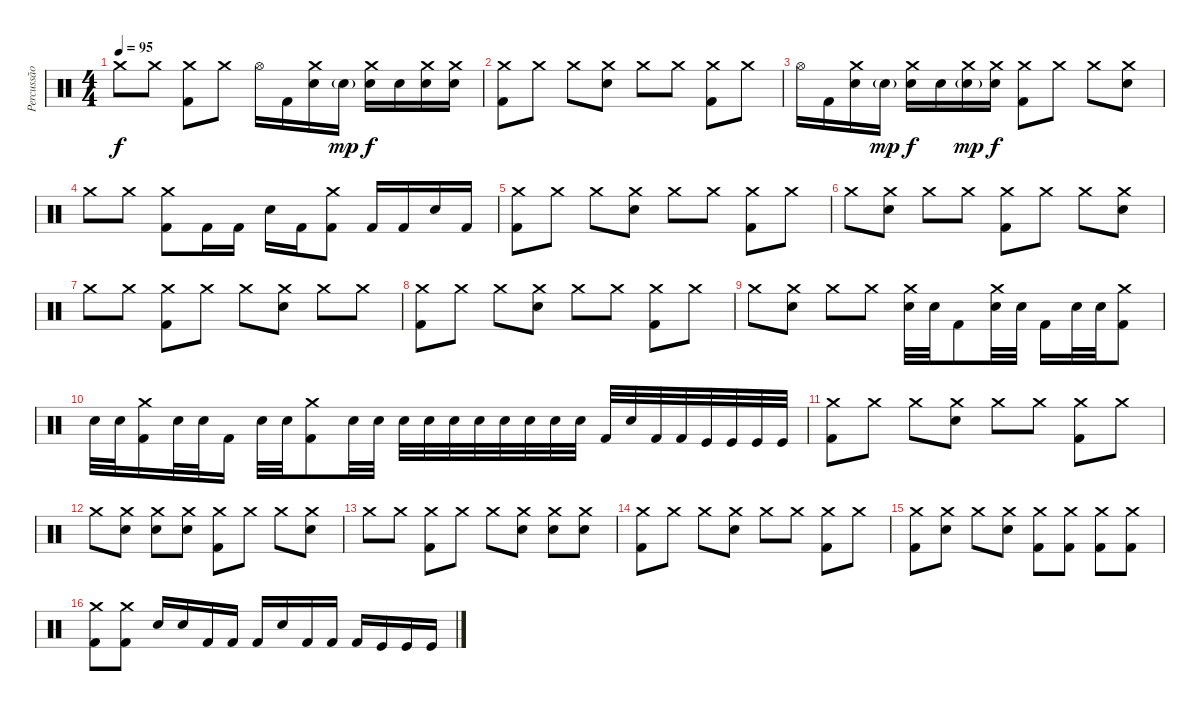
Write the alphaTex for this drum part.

\track ("Percussão" "Percussão") {instrument percussion}
\staff {score}
\articulation defaults
\ts (4 4)
\tempo 95
\clef neutral
\ks c "Crash medium (hit)".8{dy f} "Crash medium (hit)".8
("Kick (hit) 2" "Crash medium (hit)").8 "Crash medium (hit)".8 "Hi-Hat (open)".16 "Kick (hit) 2".16 ("Snare (hit) 2" "Crash medium (hit)").16 "Electric Snare (hit)"{g}.16{dy mp} ("Electric Snare (hit)" "Crash medium (hit)").16{dy f} "Snare (hit) 2".16 ("Electric Snare (hit)" "Crash medium (hit)").16 ("Snare (hit) 2" "Crash medium (hit)").16 |
("Kick (hit) 2" "Crash medium (hit)").8 "Crash medium (hit)".8 "Crash medium (hit)".8 ("Electric Snare (hit)" "Crash medium (hit)").8 "Crash medium (hit)".8 "Crash medium (hit)".8 ("Kick (hit) 2" "Crash medium (hit)").8 "Crash medium (hit)".8 |
"Hi-Hat (open)".16 "Kick (hit) 2".16 ("Snare (hit) 2" "Crash medium (hit)").16 "Electric Snare (hit)"{g}.16{dy mp} ("Electric Snare (hit)" "Crash medium (hit)").16{dy f} "Snare (hit) 2".16 ("Electric Snare (hit)"{g} "Crash medium (hit)").16{dy mp} ("Snare (hit) 2" "Crash medium (hit)").16{dy f} ("Kick (hit) 2" "Crash medium (hit)").8 "Crash medium (hit)".8 "Crash medium (hit)".8 ("Electric Snare (hit)" "Crash medium (hit)").8 |
"Crash medium (hit)".8 "Crash medium (hit)".8 ("Kick (hit) 2" "Crash medium (hit)").8 "Kick (hit) 2".16 "Kick (hit) 2".16 "Electric Snare (hit)".16 "Kick (hit) 2".16 ("Kick (hit) 2" "Crash medium (hit)").8 "Kick (hit) 2".16 "Kick (hit) 2".16 "Electric Snare (hit)".16 "Kick (hit) 2".16 |
("Kick (hit) 2" "Crash medium (hit)").8 "Crash medium (hit)".8 "Crash medium (hit)".8 ("Snare (hit) 2" "Crash medium (hit)").8 "Crash medium (hit)".8 "Crash medium (hit)".8 ("Kick (hit) 2" "Crash medium (hit)").8 "Crash medium (hit)".8 |
"Crash medium (hit)".8 ("Snare (hit) 2" "Crash medium (hit)").8 "Crash medium (hit)".8 "Crash medium (hit)".8 ("Kick (hit) 2" "Crash medium (hit)").8 "Crash medium (hit)".8 "Crash medium (hit)".8 ("Snare (hit) 2" "Crash medium (hit)").8 |
"Crash medium (hit)".8 "Crash medium (hit)".8 ("Kick (hit) 2" "Crash medium (hit)").8 "Crash medium (hit)".8 "Crash medium (hit)".8 ("Snare (hit) 2" "Crash medium (hit)").8 "Crash medium (hit)".8 "Crash medium (hit)".8 |
("Kick (hit) 2" "Crash medium (hit)").8 "Crash medium (hit)".8 "Crash medium (hit)".8 ("Snare (hit) 2" "Crash medium (hit)").8 "Crash medium (hit)".8 "Crash medium (hit)".8 ("Kick (hit) 2" "Crash medium (hit)").8 "Crash medium (hit)".8 |
"Crash medium (hit)".8 ("Snare (hit) 2" "Crash medium (hit)").8 "Crash medium (hit)".8 "Crash medium (hit)".8 ("Snare (hit) 2" "Crash medium (hit)").32 "Snare (hit) 2".32 "Kick (hit) 2".8 ("Snare (hit) 2" "Crash medium (hit)").32 "Snare (hit) 2".32 "Kick (hit) 2".16 "Snare (hit) 2".32 "Snare (hit) 2".32 ("Kick (hit) 2" "Crash medium (hit)").8 |
"Snare (hit) 2".32 "Snare (hit) 2".32 ("Kick (hit) 2" "Crash medium (hit)").16 "Snare (hit) 2".32 "Snare (hit) 2".32 "Kick (hit) 2".16 "Snare (hit) 2".32 "Snare (hit) 2".32 ("Kick (hit) 2" "Crash medium (hit)").8 "Snare (hit) 2".32 "Snare (hit) 2".32 "Snare (hit) 2".32 "Snare (hit) 2".32 "Electric Snare (hit)".32 "Electric Snare (hit)".32 "Electric Snare (hit)".32 "Electric Snare (hit)".32 "Snare (hit) 2".32 "Snare (hit) 2".32 "Kick (hit) 2".32 "Snare (hit) 2".32 "Kick (hit) 2".32 "Kick (hit) 2".32 "Kick (hit)".32 "Kick (hit)".32 "Kick (hit)".32 "Kick (hit)".32 |
("Kick (hit) 2" "Crash medium (hit)").8 "Crash medium (hit)".8 "Crash medium (hit)".8 ("Electric Snare (hit)" "Crash medium (hit)").8 "Crash medium (hit)".8 "Crash medium (hit)".8 ("Kick (hit) 2" "Crash medium (hit)").8 "Crash medium (hit)".8 |
"Crash medium (hit)".8 ("Electric Snare (hit)" "Crash medium (hit)").8 ("Electric Snare (hit)" "Crash medium (hit)").8 ("Electric Snare (hit)" "Crash medium (hit)").8 ("Kick (hit) 2" "Crash medium (hit)").8 "Crash medium (hit)".8 "Crash medium (hit)".8 ("Electric Snare (hit)" "Crash medium (hit)").8 |
"Crash medium (hit)".8 "Crash medium (hit)".8 ("Kick (hit) 2" "Crash medium (hit)").8 "Crash medium (hit)".8 "Crash medium (hit)".8 ("Electric Snare (hit)" "Crash medium (hit)").8 ("Electric Snare (hit)" "Crash medium (hit)").8 ("Electric Snare (hit)" "Crash medium (hit)").8 |
("Kick (hit) 2" "Crash medium (hit)").8 "Crash medium (hit)".8 "Crash medium (hit)".8 ("Electric Snare (hit)" "Crash medium (hit)").8 "Crash medium (hit)".8 "Crash medium (hit)".8 ("Kick (hit) 2" "Crash medium (hit)").8 "Crash medium (hit)".8 |
("Kick (hit) 2" "Crash medium (hit)").8 ("Electric Snare (hit)" "Crash medium (hit)").8 "Crash medium (hit)".8 ("Electric Snare (hit)" "Crash medium (hit)").8 ("Kick (hit) 2" "Crash medium (hit)").8 ("Kick (hit) 2" "Crash medium (hit)").8 ("Kick (hit) 2" "Crash medium (hit)").8 ("Kick (hit) 2" "Crash medium (hit)").8 |
("Kick (hit) 2" "Crash medium (hit)").8 ("Kick (hit) 2" "Crash medium (hit)").8 "Electric Snare (hit)".16 "Electric Snare (hit)".16 "Kick (hit) 2".16 "Kick (hit) 2".16 "Kick (hit) 2".16 "Electric Snare (hit)".16 "Kick (hit) 2".16 "Kick (hit) 2".16 "Kick (hit) 2".16 "Kick (hit)".16 "Kick (hit)".16 "Kick (hit)".16
